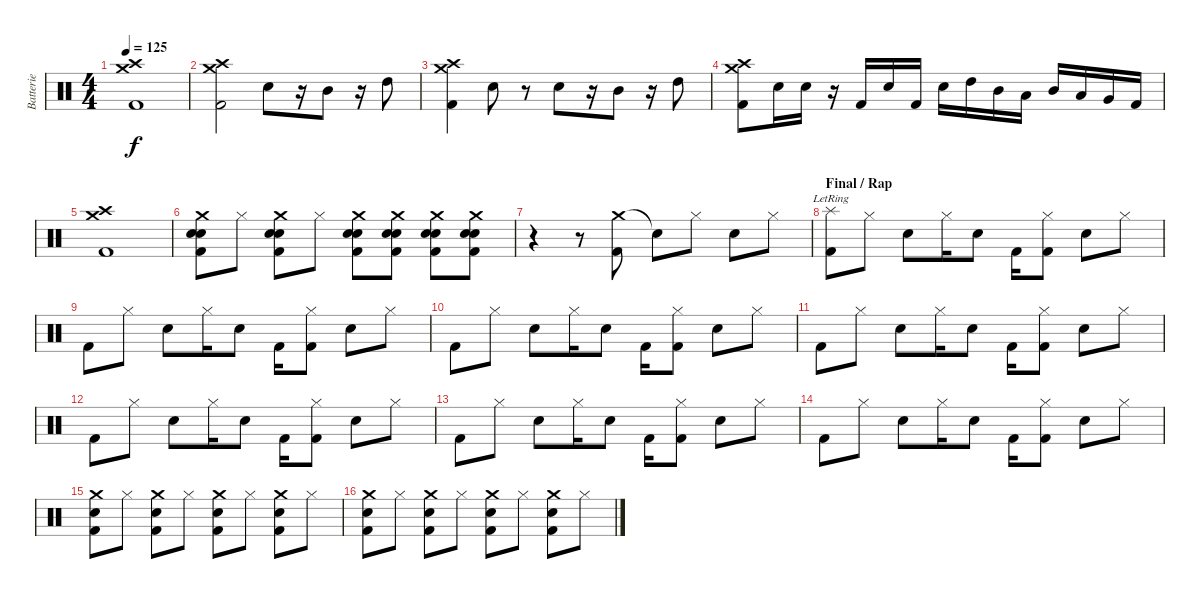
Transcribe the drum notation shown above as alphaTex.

\track ("Batterie" "Batterie") {instrument percussion}
\staff {score}
\articulation defaults
\ts (4 4)
\tempo 125
\clef neutral
\ks c
("Crash high (hit)" "Crash medium (hit)" "Kick (hit) 2").1{dy f} |
("Crash high (hit)" "Crash medium (hit)" "Kick (hit) 2").2 "Electric Snare (hit)".8 r.16 "Mid Tom (hit)".8 r.16 "High Tom (hit)".8 |
("Crash high (hit)" "Crash medium (hit)" "Kick (hit) 2").4 "Electric Snare (hit)".8 r.8 "Electric Snare (hit)".8 r.16 "Mid Tom (hit)".8 r.16 "High Tom (hit)".8 |
("Crash high (hit)" "Crash medium (hit)" "Kick (hit) 2").8 "Electric Snare (hit)".16 "Electric Snare (hit)".16 r.16 "Kick (hit) 2".16 "Electric Snare (hit)".16 "Kick (hit) 2".16 "Electric Snare (hit)".16 "High Tom (hit)".16 "Mid Tom (hit)".16 "Low Tom (hit)".16 "Mid Tom (hit)".16 "Low Tom (hit)".16 "Very Low Tom (hit)".16 "Kick (hit) 2".16 |
("Crash high (hit)" "Crash medium (hit)" "Kick (hit) 2").1 |
("Crash medium (hit)" "Electric Snare (hit)" "Electric Snare (hit)" "Kick (hit) 2").8 "Hi-Hat (closed)".8 ("Crash medium (hit)" "Electric Snare (hit)" "Electric Snare (hit)" "Kick (hit) 2").8 "Hi-Hat (closed)".8 ("Crash medium (hit)" "Electric Snare (hit)" "Electric Snare (hit)" "Kick (hit) 2").8 ("Crash medium (hit)" "Electric Snare (hit)" "Electric Snare (hit)" "Kick (hit) 2").8 ("Crash medium (hit)" "Electric Snare (hit)" "Electric Snare (hit)" "Kick (hit) 2").8 ("Crash medium (hit)" "Electric Snare (hit)" "Electric Snare (hit)" "Kick (hit) 2").8 |
r.4 r.8 ("Crash medium (hit)" "Kick (hit) 2").8 "Snare (hit)"{t}.8 "Hi-Hat (closed)".8 "Electric Snare (hit)".8 "Hi-Hat (closed)".8 |
\section ("" "Final / Rap")
("Splash (hit)"{lr} "Kick (hit) 2").8 "Hi-Hat (closed)".8 "Electric Snare (hit)".8 "Hi-Hat (closed)".16 "Electric Snare (hit)".8 "Kick (hit) 2".16 ("Hi-Hat (closed)" "Kick (hit) 2").8 "Electric Snare (hit)".8 "Hi-Hat (closed)".8 |
"Kick (hit) 2".8 "Hi-Hat (closed)".8 "Electric Snare (hit)".8 "Hi-Hat (closed)".16 "Electric Snare (hit)".8 "Kick (hit) 2".16 ("Hi-Hat (closed)" "Kick (hit) 2").8 "Electric Snare (hit)".8 "Hi-Hat (closed)".8 |
"Kick (hit) 2".8 "Hi-Hat (closed)".8 "Electric Snare (hit)".8 "Hi-Hat (closed)".16 "Electric Snare (hit)".8 "Kick (hit) 2".16 ("Hi-Hat (closed)" "Kick (hit) 2").8 "Electric Snare (hit)".8 "Hi-Hat (closed)".8 |
"Kick (hit) 2".8 "Hi-Hat (closed)".8 "Electric Snare (hit)".8 "Hi-Hat (closed)".16 "Electric Snare (hit)".8 "Kick (hit) 2".16 ("Hi-Hat (closed)" "Kick (hit) 2").8 "Electric Snare (hit)".8 "Hi-Hat (closed)".8 |
"Kick (hit) 2".8 "Hi-Hat (closed)".8 "Electric Snare (hit)".8 "Hi-Hat (closed)".16 "Electric Snare (hit)".8 "Kick (hit) 2".16 ("Hi-Hat (closed)" "Kick (hit) 2").8 "Electric Snare (hit)".8 "Hi-Hat (closed)".8 |
"Kick (hit) 2".8 "Hi-Hat (closed)".8 "Electric Snare (hit)".8 "Hi-Hat (closed)".16 "Electric Snare (hit)".8 "Kick (hit) 2".16 ("Hi-Hat (closed)" "Kick (hit) 2").8 "Electric Snare (hit)".8 "Hi-Hat (closed)".8 |
"Kick (hit) 2".8 "Hi-Hat (closed)".8 "Electric Snare (hit)".8 "Hi-Hat (closed)".16 "Electric Snare (hit)".8 "Kick (hit) 2".16 ("Hi-Hat (closed)" "Kick (hit) 2").8 "Electric Snare (hit)".8 "Hi-Hat (closed)".8 |
("Electric Snare (hit)" "Crash medium (hit)" "Kick (hit) 2").8 "Hi-Hat (closed)".8 ("Electric Snare (hit)" "Crash medium (hit)" "Kick (hit) 2").8 "Hi-Hat (closed)".8 ("Electric Snare (hit)" "Crash medium (hit)" "Kick (hit) 2").8 "Hi-Hat (closed)".8 ("Electric Snare (hit)" "Crash medium (hit)" "Kick (hit) 2").8 "Hi-Hat (closed)".8 |
("Electric Snare (hit)" "Crash medium (hit)" "Kick (hit) 2").8 "Hi-Hat (closed)".8 ("Electric Snare (hit)" "Crash medium (hit)" "Kick (hit) 2").8 "Hi-Hat (closed)".8 ("Electric Snare (hit)" "Crash medium (hit)" "Kick (hit) 2").8 "Hi-Hat (closed)".8 ("Electric Snare (hit)" "Crash medium (hit)" "Kick (hit) 2").8 "Hi-Hat (closed)".8
